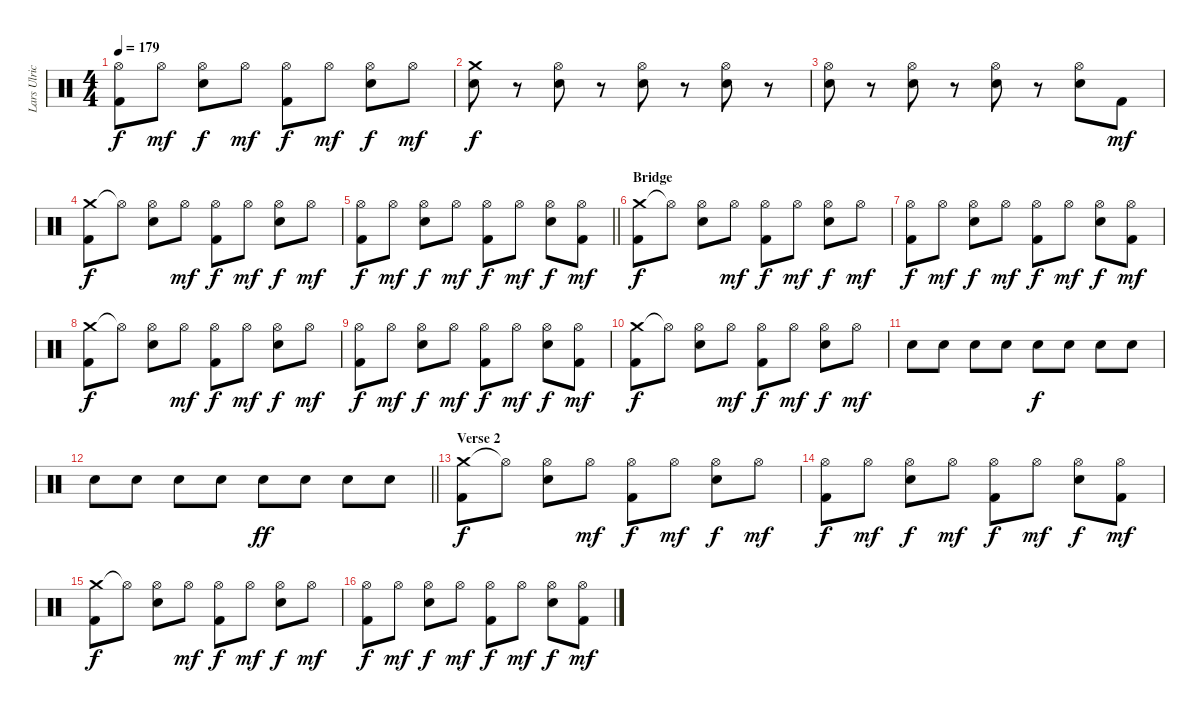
\track ("Lars Ulrich" "Lars Ulric") {instrument percussion}
\staff {score}
\articulation defaults
\ts (4 4)
\tempo 179
\clef neutral
\ks c
("Hi-Hat (open)" "Kick (hit) 2").8{dy f} "Hi-Hat (open)".8{dy mf} ("Hi-Hat (open)" "Electric Snare (hit)").8{dy f} "Hi-Hat (open)".8{dy mf} ("Hi-Hat (open)" "Kick (hit) 2").8{dy f} "Hi-Hat (open)".8{dy mf} ("Hi-Hat (open)" "Electric Snare (hit)").8{dy f} "Hi-Hat (open)".8{dy mf} |
("Crash medium (hit)" "Electric Snare (hit)").8{dy f} r.8 ("Hi-Hat (open)" "Electric Snare (hit)").8 r.8 ("Hi-Hat (open)" "Electric Snare (hit)").8 r.8 ("Hi-Hat (open)" "Electric Snare (hit)").8 r.8 |
("Hi-Hat (open)" "Electric Snare (hit)").8 r.8 ("Hi-Hat (open)" "Electric Snare (hit)").8 r.8 ("Hi-Hat (open)" "Electric Snare (hit)").8 r.8 ("Hi-Hat (open)" "Electric Snare (hit)").8 "Kick (hit) 2".8{dy mf} |
("Crash medium (hit)" "Kick (hit) 2").8{dy f} "Hi-Hat (open)"{t}.8 ("Hi-Hat (open)" "Electric Snare (hit)").8 "Hi-Hat (open)".8{dy mf} ("Hi-Hat (open)" "Kick (hit) 2").8{dy f} "Hi-Hat (open)".8{dy mf} ("Hi-Hat (open)" "Electric Snare (hit)").8{dy f} "Hi-Hat (open)".8{dy mf} |
\barLineRight lightlight
("Hi-Hat (open)" "Kick (hit) 2").8{dy f} "Hi-Hat (open)".8{dy mf} ("Hi-Hat (open)" "Electric Snare (hit)").8{dy f} "Hi-Hat (open)".8{dy mf} ("Hi-Hat (open)" "Kick (hit) 2").8{dy f} "Hi-Hat (open)".8{dy mf} ("Hi-Hat (open)" "Electric Snare (hit)").8{dy f} ("Hi-Hat (open)" "Kick (hit) 2").8{dy mf} |
\section ("" "Bridge")
("Crash medium (hit)" "Kick (hit) 2").8{dy f} "Hi-Hat (open)"{t}.8 ("Hi-Hat (open)" "Electric Snare (hit)").8 "Hi-Hat (open)".8{dy mf} ("Hi-Hat (open)" "Kick (hit) 2").8{dy f} "Hi-Hat (open)".8{dy mf} ("Hi-Hat (open)" "Electric Snare (hit)").8{dy f} "Hi-Hat (open)".8{dy mf} |
("Hi-Hat (open)" "Kick (hit) 2").8{dy f} "Hi-Hat (open)".8{dy mf} ("Hi-Hat (open)" "Electric Snare (hit)").8{dy f} "Hi-Hat (open)".8{dy mf} ("Hi-Hat (open)" "Kick (hit) 2").8{dy f} "Hi-Hat (open)".8{dy mf} ("Hi-Hat (open)" "Electric Snare (hit)").8{dy f} ("Hi-Hat (open)" "Kick (hit) 2").8{dy mf} |
("Crash medium (hit)" "Kick (hit) 2").8{dy f} "Hi-Hat (open)"{t}.8 ("Hi-Hat (open)" "Electric Snare (hit)").8 "Hi-Hat (open)".8{dy mf} ("Hi-Hat (open)" "Kick (hit) 2").8{dy f} "Hi-Hat (open)".8{dy mf} ("Hi-Hat (open)" "Electric Snare (hit)").8{dy f} "Hi-Hat (open)".8{dy mf} |
("Hi-Hat (open)" "Kick (hit) 2").8{dy f} "Hi-Hat (open)".8{dy mf} ("Hi-Hat (open)" "Electric Snare (hit)").8{dy f} "Hi-Hat (open)".8{dy mf} ("Hi-Hat (open)" "Kick (hit) 2").8{dy f} "Hi-Hat (open)".8{dy mf} ("Hi-Hat (open)" "Electric Snare (hit)").8{dy f} ("Hi-Hat (open)" "Kick (hit) 2").8{dy mf} |
("Crash medium (hit)" "Kick (hit) 2").8{dy f} "Hi-Hat (open)"{t}.8 ("Hi-Hat (open)" "Electric Snare (hit)").8 "Hi-Hat (open)".8{dy mf} ("Hi-Hat (open)" "Kick (hit) 2").8{dy f} "Hi-Hat (open)".8{dy mf} ("Hi-Hat (open)" "Electric Snare (hit)").8{dy f} "Hi-Hat (open)".8{dy mf} |
"Electric Snare (hit)".8 "Electric Snare (hit)".8 "Electric Snare (hit)".8 "Electric Snare (hit)".8 "Electric Snare (hit)".8{dy f} "Electric Snare (hit)".8 "Electric Snare (hit)".8 "Electric Snare (hit)".8 |
\barLineRight lightlight "Electric Snare (hit)".8 "Electric Snare (hit)".8 "Electric Snare (hit)".8 "Electric Snare (hit)".8 "Electric Snare (hit)".8{dy ff} "Electric Snare (hit)".8 "Electric Snare (hit)".8 "Electric Snare (hit)".8
|
\section ("" "Verse 2")
("Crash medium (hit)" "Kick (hit) 2").8{dy f} "Hi-Hat (open)"{t}.8 ("Hi-Hat (open)" "Electric Snare (hit)").8 "Hi-Hat (open)".8{dy mf} ("Hi-Hat (open)" "Kick (hit) 2").8{dy f} "Hi-Hat (open)".8{dy mf} ("Hi-Hat (open)" "Electric Snare (hit)").8{dy f} "Hi-Hat (open)".8{dy mf} |
("Hi-Hat (open)" "Kick (hit) 2").8{dy f} "Hi-Hat (open)".8{dy mf} ("Hi-Hat (open)" "Electric Snare (hit)").8{dy f} "Hi-Hat (open)".8{dy mf} ("Hi-Hat (open)" "Kick (hit) 2").8{dy f} "Hi-Hat (open)".8{dy mf} ("Hi-Hat (open)" "Electric Snare (hit)").8{dy f} ("Hi-Hat (open)" "Kick (hit) 2").8{dy mf} |
("Crash medium (hit)" "Kick (hit) 2").8{dy f} "Hi-Hat (open)"{t}.8 ("Hi-Hat (open)" "Electric Snare (hit)").8 "Hi-Hat (open)".8{dy mf} ("Hi-Hat (open)" "Kick (hit) 2").8{dy f} "Hi-Hat (open)".8{dy mf} ("Hi-Hat (open)" "Electric Snare (hit)").8{dy f} "Hi-Hat (open)".8{dy mf} |
("Hi-Hat (open)" "Kick (hit) 2").8{dy f} "Hi-Hat (open)".8{dy mf} ("Hi-Hat (open)" "Electric Snare (hit)").8{dy f} "Hi-Hat (open)".8{dy mf} ("Hi-Hat (open)" "Kick (hit) 2").8{dy f} "Hi-Hat (open)".8{dy mf} ("Hi-Hat (open)" "Electric Snare (hit)").8{dy f} ("Hi-Hat (open)" "Kick (hit) 2").8{dy mf}
